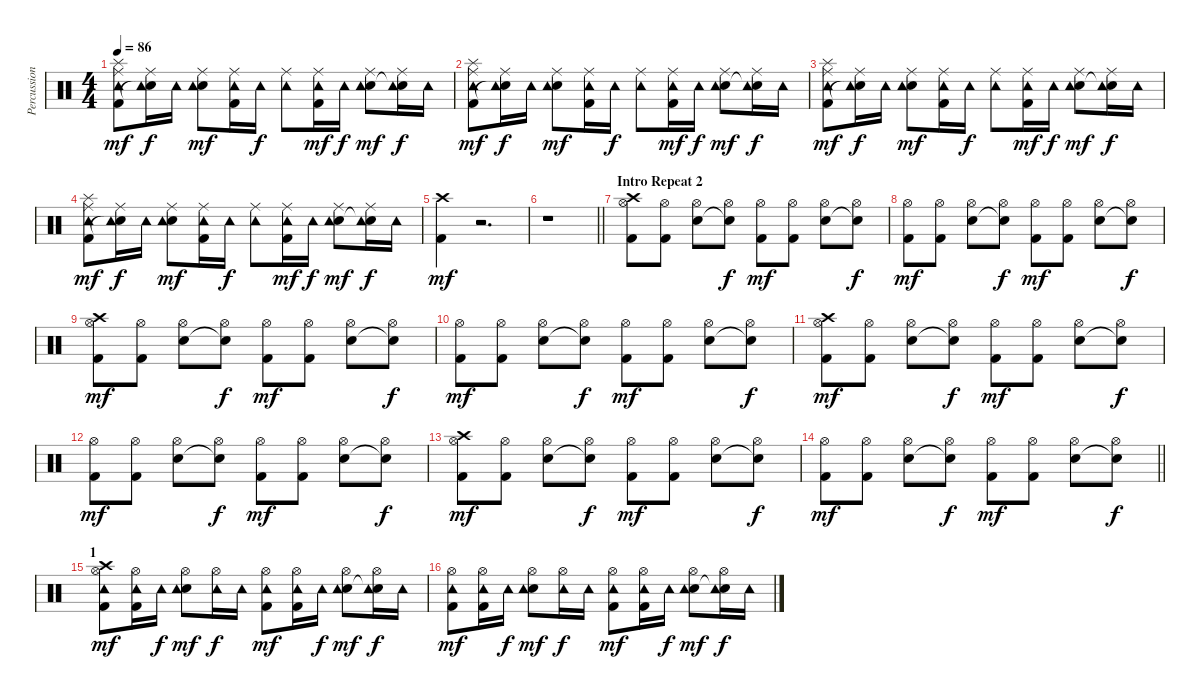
\track ("Percussion" "Percussion") {instrument percussion}
\staff {score}
\articulation defaults
\ts (4 4)
\tempo 86
\clef neutral
\ks c
("Kick (hit) 2" "Ride (middle)" "Tambourine (hit)" "Splash (hit)").8{dy mf} ("Snare (hit)"{t} "Ride (middle)" "Tambourine (hit)").16{dy f} "Tambourine (hit)".16 ("Snare (hit) 2" "Ride (middle)" "Tambourine (hit)").8{dy mf} ("Kick (hit) 2" "Ride (middle)" "Tambourine (hit)").16 "Tambourine (hit)".16{dy f} ("Ride (middle)" "Tambourine (hit)").8 ("Kick (hit) 2" "Ride (middle)" "Tambourine (hit)").16{dy mf} "Tambourine (hit)".16{dy f} ("Snare (hit) 2" "Ride (middle)" "Tambourine (hit)").8{dy mf} ("Snare (hit)"{t} "Ride (middle)" "Tambourine (hit)").16{dy f} "Tambourine (hit)".16 |
("Kick (hit) 2" "Ride (middle)" "Tambourine (hit)" "Splash (hit)").8{dy mf} ("Snare (hit)"{t} "Ride (middle)" "Tambourine (hit)").16{dy f} "Tambourine (hit)".16 ("Snare (hit) 2" "Ride (middle)" "Tambourine (hit)").8{dy mf} ("Kick (hit) 2" "Ride (middle)" "Tambourine (hit)").16 "Tambourine (hit)".16{dy f} ("Ride (middle)" "Tambourine (hit)").8 ("Kick (hit) 2" "Ride (middle)" "Tambourine (hit)").16{dy mf} "Tambourine (hit)".16{dy f} ("Snare (hit) 2" "Ride (middle)" "Tambourine (hit)").8{dy mf} ("Snare (hit)"{t} "Ride (middle)" "Tambourine (hit)").16{dy f} "Tambourine (hit)".16 |
("Kick (hit) 2" "Ride (middle)" "Tambourine (hit)" "Splash (hit)").8{dy mf} ("Snare (hit)"{t} "Ride (middle)" "Tambourine (hit)").16{dy f} "Tambourine (hit)".16 ("Snare (hit) 2" "Ride (middle)" "Tambourine (hit)").8{dy mf} ("Kick (hit) 2" "Ride (middle)" "Tambourine (hit)").16 "Tambourine (hit)".16{dy f} ("Ride (middle)" "Tambourine (hit)").8 ("Kick (hit) 2" "Ride (middle)" "Tambourine (hit)").16{dy mf} "Tambourine (hit)".16{dy f} ("Snare (hit) 2" "Ride (middle)" "Tambourine (hit)").8{dy mf} ("Snare (hit)"{t} "Ride (middle)" "Tambourine (hit)").16{dy f} "Tambourine (hit)".16 |
("Kick (hit) 2" "Ride (middle)" "Tambourine (hit)" "Splash (hit)").8{dy mf} ("Snare (hit)"{t} "Ride (middle)" "Tambourine (hit)").16{dy f} "Tambourine (hit)".16 ("Snare (hit) 2" "Ride (middle)" "Tambourine (hit)").8{dy mf} ("Kick (hit) 2" "Ride (middle)" "Tambourine (hit)").16 "Tambourine (hit)".16{dy f} ("Ride (middle)" "Tambourine (hit)").8 ("Kick (hit) 2" "Ride (middle)" "Tambourine (hit)").16{dy mf} "Tambourine (hit)".16{dy f} ("Snare (hit) 2" "Ride (middle)" "Tambourine (hit)").8{dy mf} ("Snare (hit)"{t} "Ride (middle)" "Tambourine (hit)").16{dy f} "Tambourine (hit)".16 |
("Kick (hit) 2" "Crash high (hit)").4{dy mf} r.2{d} |
\barLineRight lightlight
r.1 |
\section ("" "Intro Repeat 2")
("Kick (hit) 2" "Hi-Hat (open)" "Crash high (hit)").8 ("Kick (hit) 2" "Hi-Hat (open)").8 ("Snare (hit) 2" "Hi-Hat (open)").8 ("Snare (hit)"{t} "Hi-Hat (open)").8{dy f} ("Kick (hit) 2" "Hi-Hat (open)").8{dy mf} ("Kick (hit) 2" "Hi-Hat (open)").8 ("Snare (hit) 2" "Hi-Hat (open)").8 ("Snare (hit)"{t} "Hi-Hat (open)").8{dy f} |
("Kick (hit) 2" "Hi-Hat (open)").8{dy mf} ("Kick (hit) 2" "Hi-Hat (open)").8 ("Snare (hit) 2" "Hi-Hat (open)").8 ("Snare (hit)"{t} "Hi-Hat (open)").8{dy f} ("Kick (hit) 2" "Hi-Hat (open)").8{dy mf} ("Kick (hit) 2" "Hi-Hat (open)").8 ("Snare (hit) 2" "Hi-Hat (open)").8 ("Snare (hit)"{t} "Hi-Hat (open)").8{dy f} |
("Kick (hit) 2" "Hi-Hat (open)" "Crash high (hit)").8{dy mf} ("Kick (hit) 2" "Hi-Hat (open)").8 ("Snare (hit) 2" "Hi-Hat (open)").8 ("Snare (hit)"{t} "Hi-Hat (open)").8{dy f} ("Kick (hit) 2" "Hi-Hat (open)").8{dy mf} ("Kick (hit) 2" "Hi-Hat (open)").8 ("Snare (hit) 2" "Hi-Hat (open)").8 ("Snare (hit)"{t} "Hi-Hat (open)").8{dy f} |
("Kick (hit) 2" "Hi-Hat (open)").8{dy mf} ("Kick (hit) 2" "Hi-Hat (open)").8 ("Snare (hit) 2" "Hi-Hat (open)").8 ("Snare (hit)"{t} "Hi-Hat (open)").8{dy f} ("Kick (hit) 2" "Hi-Hat (open)").8{dy mf} ("Kick (hit) 2" "Hi-Hat (open)").8 ("Snare (hit) 2" "Hi-Hat (open)").8 ("Snare (hit)"{t} "Hi-Hat (open)").8{dy f} |
("Kick (hit) 2" "Hi-Hat (open)" "Crash high (hit)").8{dy mf} ("Kick (hit) 2" "Hi-Hat (open)").8 ("Snare (hit) 2" "Hi-Hat (open)").8 ("Snare (hit)"{t} "Hi-Hat (open)").8{dy f} ("Kick (hit) 2" "Hi-Hat (open)").8{dy mf} ("Kick (hit) 2" "Hi-Hat (open)").8 ("Snare (hit) 2" "Hi-Hat (open)").8 ("Snare (hit)"{t} "Hi-Hat (open)").8{dy f} |
("Kick (hit) 2" "Hi-Hat (open)").8{dy mf} ("Kick (hit) 2" "Hi-Hat (open)").8 ("Snare (hit) 2" "Hi-Hat (open)").8 ("Snare (hit)"{t} "Hi-Hat (open)").8{dy f} ("Kick (hit) 2" "Hi-Hat (open)").8{dy mf} ("Kick (hit) 2" "Hi-Hat (open)").8 ("Snare (hit) 2" "Hi-Hat (open)").8 ("Snare (hit)"{t} "Hi-Hat (open)").8{dy f} |
("Kick (hit) 2" "Hi-Hat (open)" "Crash high (hit)").8{dy mf} ("Kick (hit) 2" "Hi-Hat (open)").8 ("Snare (hit) 2" "Hi-Hat (open)").8 ("Snare (hit)"{t} "Hi-Hat (open)").8{dy f} ("Kick (hit) 2" "Hi-Hat (open)").8{dy mf} ("Kick (hit) 2" "Hi-Hat (open)").8 ("Snare (hit) 2" "Hi-Hat (open)").8 ("Snare (hit)"{t} "Hi-Hat (open)").8{dy f} |
\barLineRight lightlight
("Kick (hit) 2" "Hi-Hat (open)").8{dy mf} ("Kick (hit) 2" "Hi-Hat (open)").8 ("Snare (hit) 2" "Hi-Hat (open)").8 ("Snare (hit)"{t} "Hi-Hat (open)").8{dy f} ("Kick (hit) 2" "Hi-Hat (open)").8{dy mf} ("Kick (hit) 2" "Hi-Hat (open)").8 ("Snare (hit) 2" "Hi-Hat (open)").8 ("Snare (hit)"{t} "Hi-Hat (open)").8{dy f} |
\section ("" "1")
("Kick (hit) 2" "Hi-Hat (open)" "Tambourine (hit)" "Crash high (hit)").8{dy mf} ("Kick (hit) 2" "Hi-Hat (open)" "Tambourine (hit)").16 "Tambourine (hit)".16{dy f} ("Snare (hit) 2" "Hi-Hat (open)" "Tambourine (hit)").8{dy mf} ("Hi-Hat (open)" "Tambourine (hit)").16{dy f} "Tambourine (hit)".16 ("Kick (hit) 2" "Hi-Hat (open)" "Tambourine (hit)").8{dy mf} ("Kick (hit) 2" "Hi-Hat (open)" "Tambourine (hit)").16 "Tambourine (hit)".16{dy f} ("Snare (hit) 2" "Hi-Hat (open)" "Tambourine (hit)").8{dy mf} ("Snare (hit)"{t} "Hi-Hat (open)" "Tambourine (hit)").16{dy f} "Tambourine (hit)".16 |
("Kick (hit) 2" "Hi-Hat (open)" "Tambourine (hit)").8{dy mf} ("Kick (hit) 2" "Hi-Hat (open)" "Tambourine (hit)").16 "Tambourine (hit)".16{dy f} ("Snare (hit) 2" "Hi-Hat (open)" "Tambourine (hit)").8{dy mf} ("Hi-Hat (open)" "Tambourine (hit)").16{dy f} "Tambourine (hit)".16 ("Kick (hit) 2" "Hi-Hat (open)" "Tambourine (hit)").8{dy mf} ("Kick (hit) 2" "Hi-Hat (open)" "Tambourine (hit)").16 "Tambourine (hit)".16{dy f} ("Snare (hit) 2" "Hi-Hat (open)" "Tambourine (hit)").8{dy mf} ("Snare (hit)"{t} "Hi-Hat (open)" "Tambourine (hit)").16{dy f} "Tambourine (hit)".16
